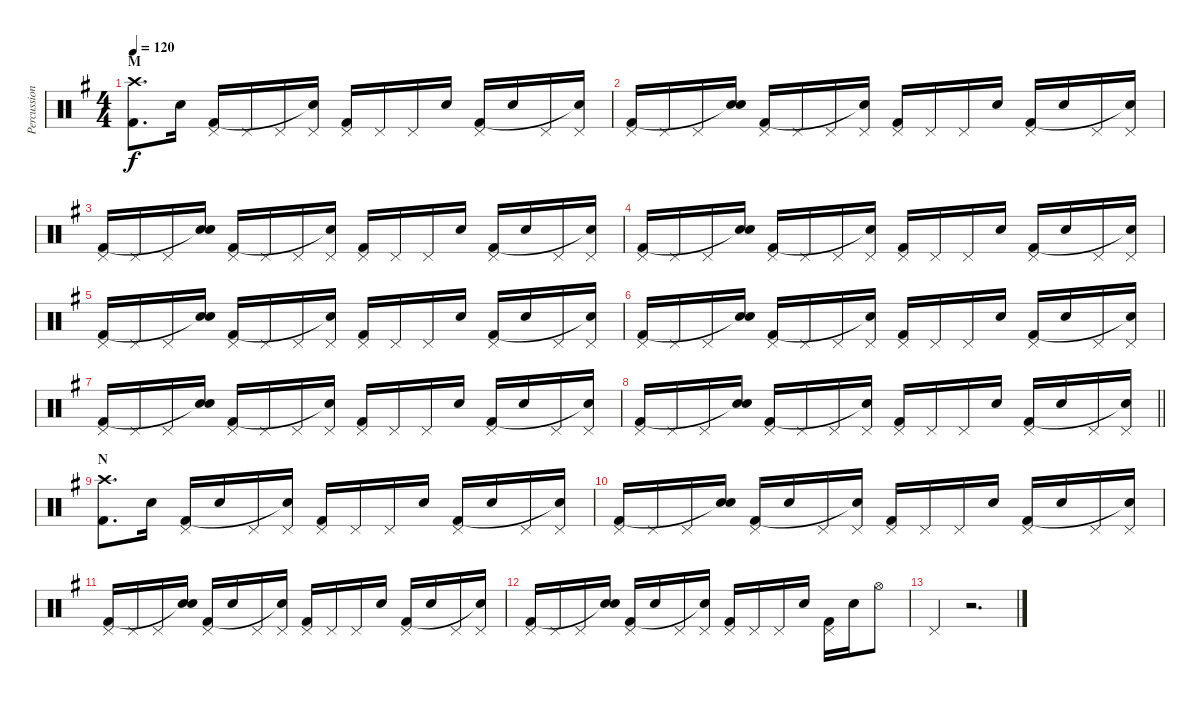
\track ("Percussion" "Percussion") {instrument percussion}
\staff {score}
\articulation defaults
\ts (4 4)
\section ("" "M")
\tempo 120
\clef neutral
\ks g
("Crash high (hit)" "Kick (hit) 2").8{d dy f} "Electric Snare (hit)".16 ("Pedal Hi-Hat (hit)" "Kick (hit) 2").16 "Pedal Hi-Hat (hit)".16 "Pedal Hi-Hat (hit)".16 ("Pedal Hi-Hat (hit)" "Snare (hit)"{t}).16 ("Pedal Hi-Hat (hit)" "Kick (hit) 2").16 "Pedal Hi-Hat (hit)".16 "Pedal Hi-Hat (hit)".16 "Electric Snare (hit)".16 ("Pedal Hi-Hat (hit)" "Kick (hit) 2").16 "Electric Snare (hit)".16 "Pedal Hi-Hat (hit)".16 ("Pedal Hi-Hat (hit)" "Snare (hit)"{t}).16 |
("Pedal Hi-Hat (hit)" "Kick (hit) 2").16 "Pedal Hi-Hat (hit)".16 "Pedal Hi-Hat (hit)".16 ("Electric Snare (hit)" "Snare (hit)"{t}).16 ("Pedal Hi-Hat (hit)" "Kick (hit) 2").16 "Pedal Hi-Hat (hit)".16 "Pedal Hi-Hat (hit)".16 ("Pedal Hi-Hat (hit)" "Snare (hit)"{t}).16 ("Pedal Hi-Hat (hit)" "Kick (hit) 2").16 "Pedal Hi-Hat (hit)".16 "Pedal Hi-Hat (hit)".16 "Electric Snare (hit)".16 ("Pedal Hi-Hat (hit)" "Kick (hit) 2").16 "Electric Snare (hit)".16 "Pedal Hi-Hat (hit)".16 ("Pedal Hi-Hat (hit)" "Snare (hit)"{t}).16 |
("Pedal Hi-Hat (hit)" "Kick (hit) 2").16 "Pedal Hi-Hat (hit)".16 "Pedal Hi-Hat (hit)".16 ("Electric Snare (hit)" "Snare (hit)"{t}).16 ("Pedal Hi-Hat (hit)" "Kick (hit) 2").16 "Pedal Hi-Hat (hit)".16 "Pedal Hi-Hat (hit)".16 ("Pedal Hi-Hat (hit)" "Snare (hit)"{t}).16 ("Pedal Hi-Hat (hit)" "Kick (hit) 2").16 "Pedal Hi-Hat (hit)".16 "Pedal Hi-Hat (hit)".16 "Electric Snare (hit)".16 ("Pedal Hi-Hat (hit)" "Kick (hit) 2").16 "Electric Snare (hit)".16 "Pedal Hi-Hat (hit)".16 ("Pedal Hi-Hat (hit)" "Snare (hit)"{t}).16 |
("Pedal Hi-Hat (hit)" "Kick (hit) 2").16 "Pedal Hi-Hat (hit)".16 "Pedal Hi-Hat (hit)".16 ("Electric Snare (hit)" "Snare (hit)"{t}).16 ("Pedal Hi-Hat (hit)" "Kick (hit) 2").16 "Pedal Hi-Hat (hit)".16 "Pedal Hi-Hat (hit)".16 ("Pedal Hi-Hat (hit)" "Snare (hit)"{t}).16 ("Pedal Hi-Hat (hit)" "Kick (hit) 2").16 "Pedal Hi-Hat (hit)".16 "Pedal Hi-Hat (hit)".16 "Electric Snare (hit)".16 ("Pedal Hi-Hat (hit)" "Kick (hit) 2").16 "Electric Snare (hit)".16 "Pedal Hi-Hat (hit)".16 ("Pedal Hi-Hat (hit)" "Snare (hit)"{t}).16 |
("Pedal Hi-Hat (hit)" "Kick (hit) 2").16 "Pedal Hi-Hat (hit)".16 "Pedal Hi-Hat (hit)".16 ("Electric Snare (hit)" "Snare (hit)"{t}).16 ("Pedal Hi-Hat (hit)" "Kick (hit) 2").16 "Pedal Hi-Hat (hit)".16 "Pedal Hi-Hat (hit)".16 ("Pedal Hi-Hat (hit)" "Snare (hit)"{t}).16 ("Pedal Hi-Hat (hit)" "Kick (hit) 2").16 "Pedal Hi-Hat (hit)".16 "Pedal Hi-Hat (hit)".16 "Electric Snare (hit)".16 ("Pedal Hi-Hat (hit)" "Kick (hit) 2").16 "Electric Snare (hit)".16 "Pedal Hi-Hat (hit)".16 ("Pedal Hi-Hat (hit)" "Snare (hit)"{t}).16 |
("Pedal Hi-Hat (hit)" "Kick (hit) 2").16 "Pedal Hi-Hat (hit)".16 "Pedal Hi-Hat (hit)".16 ("Electric Snare (hit)" "Snare (hit)"{t}).16 ("Pedal Hi-Hat (hit)" "Kick (hit) 2").16 "Pedal Hi-Hat (hit)".16 "Pedal Hi-Hat (hit)".16 ("Pedal Hi-Hat (hit)" "Snare (hit)"{t}).16 ("Pedal Hi-Hat (hit)" "Kick (hit) 2").16 "Pedal Hi-Hat (hit)".16 "Pedal Hi-Hat (hit)".16 "Electric Snare (hit)".16 ("Pedal Hi-Hat (hit)" "Kick (hit) 2").16 "Electric Snare (hit)".16 "Pedal Hi-Hat (hit)".16 ("Pedal Hi-Hat (hit)" "Snare (hit)"{t}).16 |
("Pedal Hi-Hat (hit)" "Kick (hit) 2").16 "Pedal Hi-Hat (hit)".16 "Pedal Hi-Hat (hit)".16 ("Electric Snare (hit)" "Snare (hit)"{t}).16 ("Pedal Hi-Hat (hit)" "Kick (hit) 2").16 "Pedal Hi-Hat (hit)".16 "Pedal Hi-Hat (hit)".16 ("Pedal Hi-Hat (hit)" "Snare (hit)"{t}).16 ("Pedal Hi-Hat (hit)" "Kick (hit) 2").16 "Pedal Hi-Hat (hit)".16 "Pedal Hi-Hat (hit)".16 "Electric Snare (hit)".16 ("Pedal Hi-Hat (hit)" "Kick (hit) 2").16 "Electric Snare (hit)".16 "Pedal Hi-Hat (hit)".16 ("Pedal Hi-Hat (hit)" "Snare (hit)"{t}).16 |
\barLineRight lightlight
("Pedal Hi-Hat (hit)" "Kick (hit) 2").16 "Pedal Hi-Hat (hit)".16 "Pedal Hi-Hat (hit)".16 ("Electric Snare (hit)" "Snare (hit)"{t}).16 ("Pedal Hi-Hat (hit)" "Kick (hit) 2").16 "Pedal Hi-Hat (hit)".16 "Pedal Hi-Hat (hit)".16 ("Pedal Hi-Hat (hit)" "Snare (hit)"{t}).16 ("Pedal Hi-Hat (hit)" "Kick (hit) 2").16 "Pedal Hi-Hat (hit)".16 "Pedal Hi-Hat (hit)".16 "Electric Snare (hit)".16 ("Pedal Hi-Hat (hit)" "Kick (hit) 2").16 "Electric Snare (hit)".16 "Pedal Hi-Hat (hit)".16 ("Pedal Hi-Hat (hit)" "Snare (hit)"{t}).16 |
\section ("" "N")
("Crash high (hit)" "Kick (hit) 2").8{d} "Electric Snare (hit)".16 ("Pedal Hi-Hat (hit)" "Kick (hit) 2").16 "Electric Snare (hit)".16 "Pedal Hi-Hat (hit)".16 ("Pedal Hi-Hat (hit)" "Snare (hit)"{t}).16 ("Pedal Hi-Hat (hit)" "Kick (hit) 2").16 "Pedal Hi-Hat (hit)".16 "Pedal Hi-Hat (hit)".16 "Electric Snare (hit)".16 ("Pedal Hi-Hat (hit)" "Kick (hit) 2").16 "Electric Snare (hit)".16 "Pedal Hi-Hat (hit)".16 ("Pedal Hi-Hat (hit)" "Snare (hit)"{t}).16 |
("Pedal Hi-Hat (hit)" "Kick (hit) 2").16 "Pedal Hi-Hat (hit)".16 "Pedal Hi-Hat (hit)".16 ("Electric Snare (hit)" "Snare (hit)"{t}).16 ("Pedal Hi-Hat (hit)" "Kick (hit) 2").16 "Electric Snare (hit)".16 "Pedal Hi-Hat (hit)".16 ("Pedal Hi-Hat (hit)" "Snare (hit)"{t}).16 ("Pedal Hi-Hat (hit)" "Kick (hit) 2").16 "Pedal Hi-Hat (hit)".16 "Pedal Hi-Hat (hit)".16 "Electric Snare (hit)".16 ("Pedal Hi-Hat (hit)" "Kick (hit) 2").16 "Electric Snare (hit)".16 "Pedal Hi-Hat (hit)".16 ("Pedal Hi-Hat (hit)" "Snare (hit)"{t}).16 |
("Pedal Hi-Hat (hit)" "Kick (hit) 2").16 "Pedal Hi-Hat (hit)".16 "Pedal Hi-Hat (hit)".16 ("Electric Snare (hit)" "Snare (hit)"{t}).16 ("Pedal Hi-Hat (hit)" "Kick (hit) 2").16 "Electric Snare (hit)".16 "Pedal Hi-Hat (hit)".16 ("Pedal Hi-Hat (hit)" "Snare (hit)"{t}).16 ("Pedal Hi-Hat (hit)" "Kick (hit) 2").16 "Pedal Hi-Hat (hit)".16 "Pedal Hi-Hat (hit)".16 "Electric Snare (hit)".16 ("Pedal Hi-Hat (hit)" "Kick (hit) 2").16 "Electric Snare (hit)".16 "Pedal Hi-Hat (hit)".16 ("Pedal Hi-Hat (hit)" "Snare (hit)"{t}).16 |
("Pedal Hi-Hat (hit)" "Kick (hit) 2").16 "Pedal Hi-Hat (hit)".16 "Pedal Hi-Hat (hit)".16 ("Electric Snare (hit)" "Snare (hit)"{t}).16 ("Pedal Hi-Hat (hit)" "Kick (hit) 2").16 "Electric Snare (hit)".16 "Pedal Hi-Hat (hit)".16 ("Pedal Hi-Hat (hit)" "Snare (hit)"{t}).16 ("Pedal Hi-Hat (hit)" "Kick (hit) 2").16 "Pedal Hi-Hat (hit)".16 "Pedal Hi-Hat (hit)".16 "Electric Snare (hit)".16 ("Pedal Hi-Hat (hit)" "Kick (hit) 2").16 "Electric Snare (hit)".16 "Hi-Hat (open)".8 |
"Pedal Hi-Hat (hit)".4 r.2{d}
